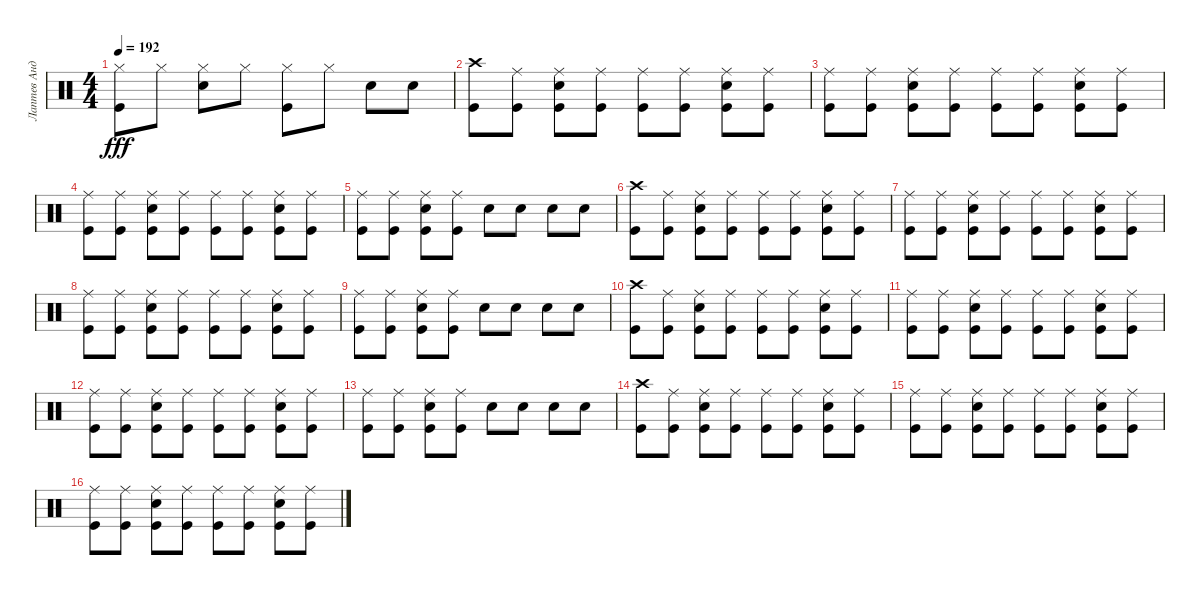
\track ("Лаптев Андрей" "Лаптев Анд") {instrument percussion}
\staff {score}
\articulation defaults
\ts (4 4)
\tempo 192
\clef neutral
\ks c
("Hi-Hat (closed)" "Kick (hit)").8{dy fff} "Hi-Hat (closed)".8 ("Hi-Hat (closed)" "Electric Snare (hit)").8 "Hi-Hat (closed)".8 ("Hi-Hat (closed)" "Kick (hit)").8 "Hi-Hat (closed)".8 "Electric Snare (hit)".8 "Electric Snare (hit)".8 |
("Kick (hit)" "Crash high (hit)").8 ("Kick (hit)" "Ride (middle)").8 ("Ride (middle)" "Kick (hit)" "Electric Snare (hit)").8 ("Kick (hit)" "Ride (middle)").8 ("Kick (hit)" "Ride (middle)").8 ("Ride (middle)" "Kick (hit)").8 ("Kick (hit)" "Ride (middle)" "Electric Snare (hit)").8 ("Ride (middle)" "Kick (hit)").8 |
("Ride (middle)" "Kick (hit)").8 ("Kick (hit)" "Ride (middle)").8 ("Ride (middle)" "Electric Snare (hit)" "Kick (hit)").8 ("Kick (hit)" "Ride (middle)").8 ("Kick (hit)" "Ride (middle)").8 ("Kick (hit)" "Ride (middle)").8 ("Ride (middle)" "Electric Snare (hit)" "Kick (hit)").8 ("Ride (middle)" "Kick (hit)").8 |
("Kick (hit)" "Ride (middle)").8 ("Ride (middle)" "Kick (hit)").8 ("Ride (middle)" "Kick (hit)" "Electric Snare (hit)").8 ("Ride (middle)" "Kick (hit)").8 ("Ride (middle)" "Kick (hit)").8 ("Kick (hit)" "Ride (middle)").8 ("Ride (middle)" "Electric Snare (hit)" "Kick (hit)").8 ("Ride (middle)" "Kick (hit)").8 |
("Kick (hit)" "Ride (middle)").8 ("Kick (hit)" "Ride (middle)").8 ("Ride (middle)" "Kick (hit)" "Electric Snare (hit)").8 ("Kick (hit)" "Ride (middle)").8 "Electric Snare (hit)".8 "Electric Snare (hit)".8 "Electric Snare (hit)".8 "Electric Snare (hit)".8 |
("Kick (hit)" "Crash high (hit)").8 ("Ride (middle)" "Kick (hit)").8 ("Ride (middle)" "Electric Snare (hit)" "Kick (hit)").8 ("Kick (hit)" "Ride (middle)").8 ("Ride (middle)" "Kick (hit)").8 ("Ride (middle)" "Kick (hit)").8 ("Kick (hit)" "Ride (middle)" "Electric Snare (hit)").8 ("Kick (hit)" "Ride (middle)").8 |
("Ride (middle)" "Kick (hit)").8 ("Kick (hit)" "Ride (middle)").8 ("Electric Snare (hit)" "Ride (middle)" "Kick (hit)").8 ("Kick (hit)" "Ride (middle)").8 ("Kick (hit)" "Ride (middle)").8 ("Ride (middle)" "Kick (hit)").8 ("Kick (hit)" "Ride (middle)" "Electric Snare (hit)").8 ("Kick (hit)" "Ride (middle)").8 |
("Ride (middle)" "Kick (hit)").8 ("Ride (middle)" "Kick (hit)").8 ("Kick (hit)" "Ride (middle)" "Electric Snare (hit)").8 ("Kick (hit)" "Ride (middle)").8 ("Kick (hit)" "Ride (middle)").8 ("Kick (hit)" "Ride (middle)").8 ("Electric Snare (hit)" "Ride (middle)" "Kick (hit)").8 ("Kick (hit)" "Ride (middle)").8 |
("Kick (hit)" "Ride (middle)").8 ("Kick (hit)" "Ride (middle)").8 ("Ride (middle)" "Electric Snare (hit)" "Kick (hit)").8 ("Ride (middle)" "Kick (hit)").8 "Electric Snare (hit)".8 "Electric Snare (hit)".8 "Electric Snare (hit)".8 "Electric Snare (hit)".8 |
("Crash high (hit)" "Kick (hit)").8 ("Ride (middle)" "Kick (hit)").8 ("Ride (middle)" "Electric Snare (hit)" "Kick (hit)").8 ("Ride (middle)" "Kick (hit)").8 ("Kick (hit)" "Ride (middle)").8 ("Ride (middle)" "Kick (hit)").8 ("Ride (middle)" "Electric Snare (hit)" "Kick (hit)").8 ("Ride (middle)" "Kick (hit)").8 |
("Ride (middle)" "Kick (hit)").8 ("Ride (middle)" "Kick (hit)").8 ("Electric Snare (hit)" "Kick (hit)" "Ride (middle)").8 ("Kick (hit)" "Ride (middle)").8 ("Ride (middle)" "Kick (hit)").8 ("Ride (middle)" "Kick (hit)").8 ("Kick (hit)" "Electric Snare (hit)" "Ride (middle)").8 ("Ride (middle)" "Kick (hit)").8 |
("Kick (hit)" "Ride (middle)").8 ("Ride (middle)" "Kick (hit)").8 ("Electric Snare (hit)" "Kick (hit)" "Ride (middle)").8 ("Kick (hit)" "Ride (middle)").8 ("Ride (middle)" "Kick (hit)").8 ("Ride (middle)" "Kick (hit)").8 ("Kick (hit)" "Electric Snare (hit)" "Ride (middle)").8 ("Ride (middle)" "Kick (hit)").8 |
("Kick (hit)" "Ride (middle)").8 ("Kick (hit)" "Ride (middle)").8 ("Kick (hit)" "Electric Snare (hit)" "Ride (middle)").8 ("Ride (middle)" "Kick (hit)").8 "Electric Snare (hit)".8 "Electric Snare (hit)".8 "Electric Snare (hit)".8 "Electric Snare (hit)".8 |
("Crash high (hit)" "Kick (hit)").8 ("Ride (middle)" "Kick (hit)").8 ("Kick (hit)" "Ride (middle)" "Electric Snare (hit)").8 ("Ride (middle)" "Kick (hit)").8 ("Kick (hit)" "Ride (middle)").8 ("Kick (hit)" "Ride (middle)").8 ("Kick (hit)" "Ride (middle)" "Electric Snare (hit)").8 ("Ride (middle)" "Kick (hit)").8 |
("Kick (hit)" "Ride (middle)").8 ("Kick (hit)" "Ride (middle)").8 ("Ride (middle)" "Kick (hit)" "Electric Snare (hit)").8 ("Kick (hit)" "Ride (middle)").8 ("Kick (hit)" "Ride (middle)").8 ("Kick (hit)" "Ride (middle)").8 ("Kick (hit)" "Electric Snare (hit)" "Ride (middle)").8 ("Kick (hit)" "Ride (middle)").8 |
("Kick (hit)" "Ride (middle)").8 ("Ride (middle)" "Kick (hit)").8 ("Electric Snare (hit)" "Kick (hit)" "Ride (middle)").8 ("Ride (middle)" "Kick (hit)").8 ("Ride (middle)" "Kick (hit)").8 ("Ride (middle)" "Kick (hit)").8 ("Kick (hit)" "Ride (middle)" "Electric Snare (hit)").8 ("Ride (middle)" "Kick (hit)").8
